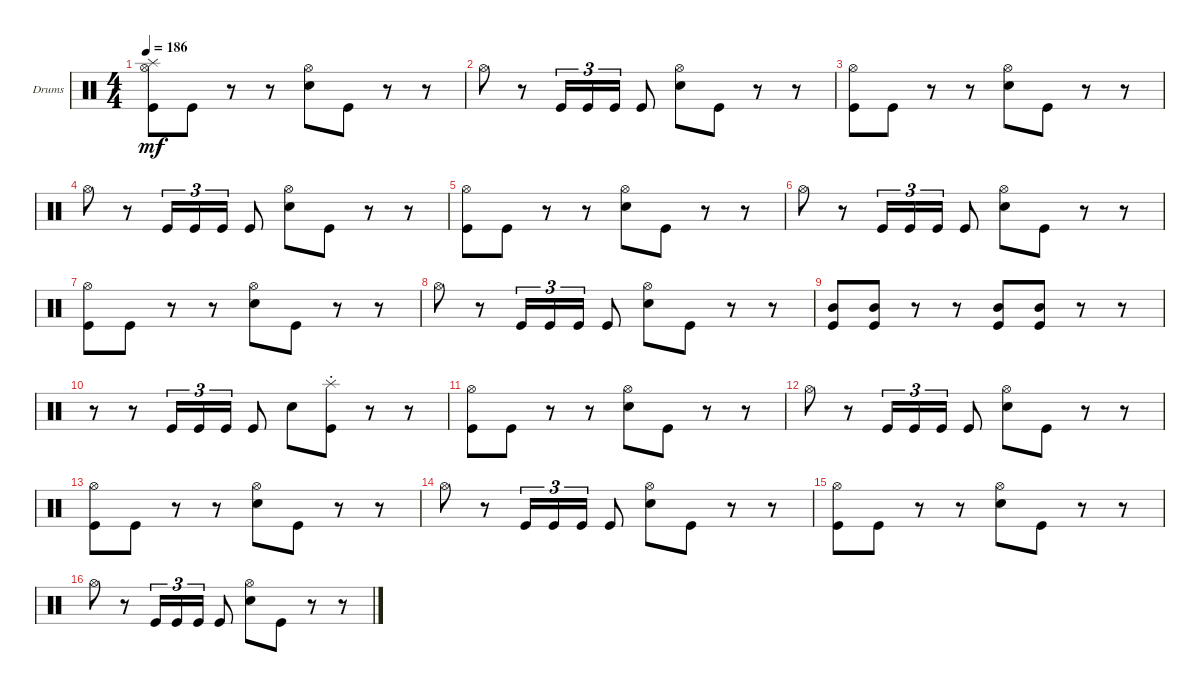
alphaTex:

\bracketExtendMode groupsimilarinstruments
\firstSystemTrackNameOrientation horizontal
\otherSystemsTrackNameOrientation horizontal
\track ("Drumkit" "Drums") {instrument percussion}
\staff {score}
\articulation defaults
\ts (4 4)
\tempo 186
\clef neutral
\ks c
("Kick (hit)" "Hi-Hat (open)" "Splash (hit)").8{dy mf} "Kick (hit)".8 r.8 r.8 ("Snare (hit) 2" "Hi-Hat (open)").8 "Kick (hit)".8 r.8 r.8 |
"Hi-Hat (open)".8 r.8 "Kick (hit)".16{tu (3 2)} "Kick (hit)".16{tu (3 2)} "Kick (hit)".16{tu (3 2)} "Kick (hit)".8 ("Snare (hit) 2" "Hi-Hat (open)").8 "Kick (hit)".8 r.8 r.8 |
("Kick (hit)" "Hi-Hat (open)").8 "Kick (hit)".8 r.8 r.8 ("Snare (hit) 2" "Hi-Hat (open)").8 "Kick (hit)".8 r.8 r.8 |
"Hi-Hat (open)".8 r.8 "Kick (hit)".16{tu (3 2)} "Kick (hit)".16{tu (3 2)} "Kick (hit)".16{tu (3 2)} "Kick (hit)".8 ("Snare (hit) 2" "Hi-Hat (open)").8 "Kick (hit)".8 r.8 r.8 |
("Kick (hit)" "Hi-Hat (open)").8 "Kick (hit)".8 r.8 r.8 ("Snare (hit) 2" "Hi-Hat (open)").8 "Kick (hit)".8 r.8 r.8 |
"Hi-Hat (open)".8 r.8 "Kick (hit)".16{tu (3 2)} "Kick (hit)".16{tu (3 2)} "Kick (hit)".16{tu (3 2)} "Kick (hit)".8 ("Snare (hit) 2" "Hi-Hat (open)").8 "Kick (hit)".8 r.8 r.8 |
("Kick (hit)" "Hi-Hat (open)").8 "Kick (hit)".8 r.8 r.8 ("Snare (hit) 2" "Hi-Hat (open)").8 "Kick (hit)".8 r.8 r.8 |
"Hi-Hat (open)".8 r.8 "Kick (hit)".16{tu (3 2)} "Kick (hit)".16{tu (3 2)} "Kick (hit)".16{tu (3 2)} "Kick (hit)".8 ("Snare (hit) 2" "Hi-Hat (open)").8 "Kick (hit)".8 r.8 r.8 |
("Kick (hit)" "Mid Tom (hit)").8 ("Kick (hit)" "Mid Tom (hit)").8 r.8 r.8 ("Kick (hit)" "Mid Tom (hit)").8 ("Kick (hit)" "Mid Tom (hit)").8 r.8 r.8 |
r.8 r.8 "Kick (hit)".16{tu (3 2)} "Kick (hit)".16{tu (3 2)} "Kick (hit)".16{tu (3 2)} "Kick (hit)".8 "Snare (hit) 2".8 ("Kick (hit)" "Splash (hit)"{st}).8 r.8 r.8 |
("Kick (hit)" "Hi-Hat (open)").8 "Kick (hit)".8 r.8 r.8 ("Snare (hit) 2" "Hi-Hat (open)").8 "Kick (hit)".8 r.8 r.8 |
"Hi-Hat (open)".8 r.8 "Kick (hit)".16{tu (3 2)} "Kick (hit)".16{tu (3 2)} "Kick (hit)".16{tu (3 2)} "Kick (hit)".8 ("Snare (hit) 2" "Hi-Hat (open)").8 "Kick (hit)".8 r.8 r.8 |
("Kick (hit)" "Hi-Hat (open)").8 "Kick (hit)".8 r.8 r.8 ("Snare (hit) 2" "Hi-Hat (open)").8 "Kick (hit)".8 r.8 r.8 |
"Hi-Hat (open)".8 r.8 "Kick (hit)".16{tu (3 2)} "Kick (hit)".16{tu (3 2)} "Kick (hit)".16{tu (3 2)} "Kick (hit)".8 ("Snare (hit) 2" "Hi-Hat (open)").8 "Kick (hit)".8 r.8 r.8 |
("Kick (hit)" "Hi-Hat (open)").8 "Kick (hit)".8 r.8 r.8 ("Snare (hit) 2" "Hi-Hat (open)").8 "Kick (hit)".8 r.8 r.8 |
"Hi-Hat (open)".8 r.8 "Kick (hit)".16{tu (3 2)} "Kick (hit)".16{tu (3 2)} "Kick (hit)".16{tu (3 2)} "Kick (hit)".8 ("Snare (hit) 2" "Hi-Hat (open)").8 "Kick (hit)".8 r.8 r.8
